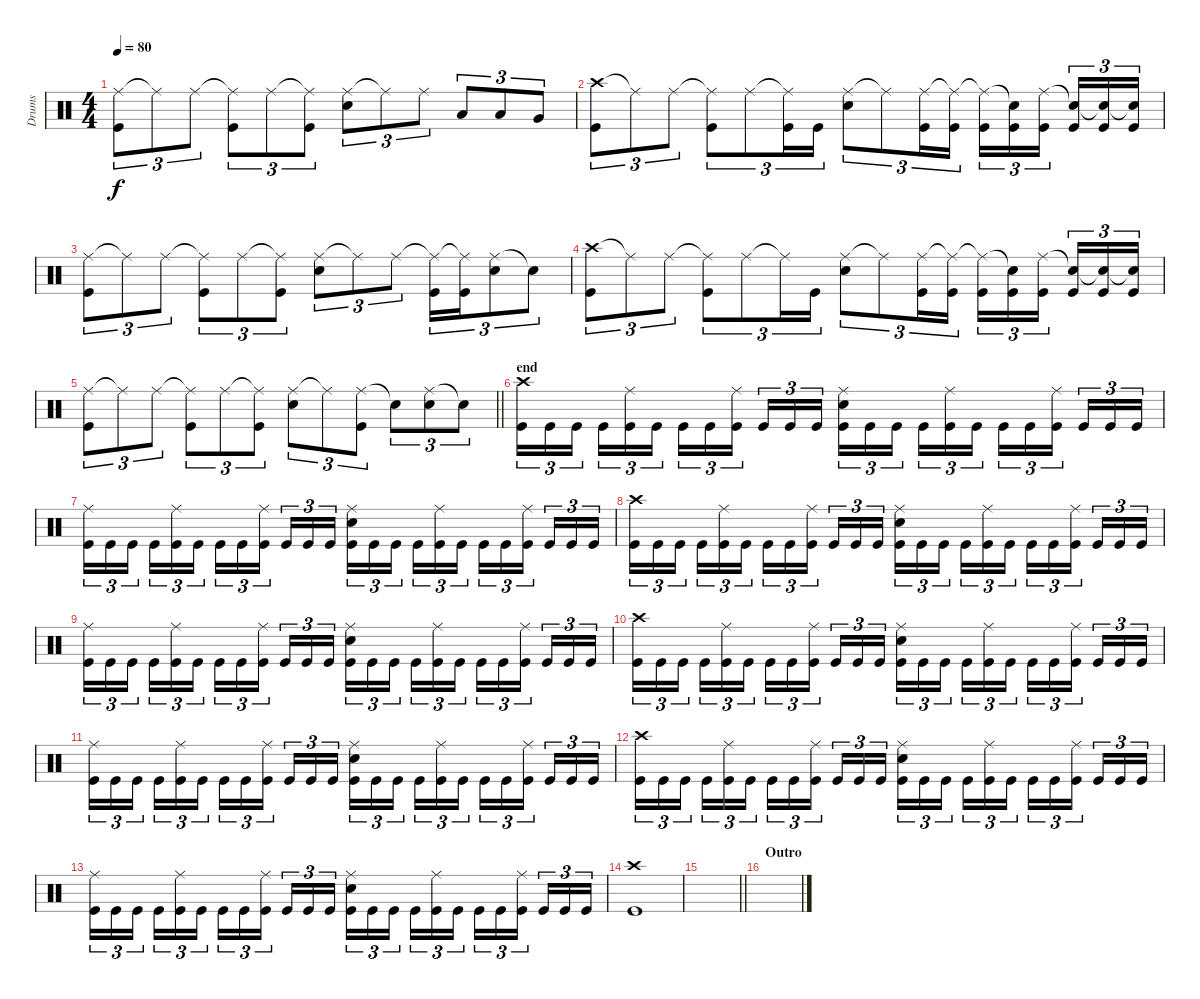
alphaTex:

\track ("Drums" "Drums") {instrument percussion}
\staff {score}
\articulation defaults
\ts (4 4)
\tempo 80
\clef neutral
\ks c
("Ride (middle)" "Kick (hit)").8{tu (3 2) dy f} "Ride (middle)"{t}.8{tu (3 2)} "Ride (middle)".8{tu (3 2)} ("Ride (middle)"{t} "Kick (hit)").8{tu (3 2)} "Ride (middle)".8{tu (3 2)} ("Ride (middle)"{t} "Kick (hit)").8{tu (3 2)} ("Ride (middle)" "Snare (hit) 2").8{tu (3 2)} "Ride (middle)"{t}.8{tu (3 2)} "Ride (middle)".8{tu (3 2)} "Low Tom (hit)".8{tu (3 2)} "Low Tom (hit)".8{tu (3 2)} "Very Low Tom (hit)".8{tu (3 2)} |
("Crash high (hit)" "Kick (hit)").8{tu (3 2)} "Ride (middle)"{t}.8{tu (3 2)} "Ride (middle)".8{tu (3 2)} ("Ride (middle)"{t} "Kick (hit)").8{tu (3 2)} "Ride (middle)".8{tu (3 2)} ("Ride (middle)"{t} "Kick (hit)").16{tu (3 2)} "Kick (hit)".16{tu (3 2)} ("Ride (middle)" "Snare (hit) 2").8{tu (3 2)} "Ride (middle)"{t}.8{tu (3 2)} ("Ride (middle)" "Kick (hit)").16{tu (3 2)} ("Ride (middle)"{t} "Kick (hit)").16{tu (3 2)} ("Ride (middle)"{t} "Kick (hit)").16{tu (3 2)} ("Snare (hit)"{t} "Kick (hit)").16{tu (3 2)} ("Ride (middle)" "Kick (hit)").16{tu (3 2) beam splitsecondary} ("Snare (hit)"{t} "Kick (hit)").16{tu (3 2)} ("Snare (hit)"{t} "Kick (hit)").16{tu (3 2)} ("Snare (hit)"{t} "Kick (hit)").16{tu (3 2)} |
("Ride (middle)" "Kick (hit)").8{tu (3 2)} "Ride (middle)"{t}.8{tu (3 2)} "Ride (middle)".8{tu (3 2)} ("Ride (middle)"{t} "Kick (hit)").8{tu (3 2)} "Ride (middle)".8{tu (3 2)} ("Ride (middle)"{t} "Kick (hit)").8{tu (3 2)} ("Ride (middle)" "Snare (hit) 2").8{tu (3 2)} "Ride (middle)"{t}.8{tu (3 2)} "Ride (middle)".8{tu (3 2)} ("Ride (middle)"{t} "Kick (hit)").16{tu (3 2)} ("Ride (middle)"{t} "Kick (hit)").16{tu (3 2)} ("Ride (middle)" "Snare (hit) 2").8{tu (3 2)} "Snare (hit)"{t}.8{tu (3 2)} |
("Crash high (hit)" "Kick (hit)").8{tu (3 2)} "Ride (middle)"{t}.8{tu (3 2)} "Ride (middle)".8{tu (3 2)} ("Ride (middle)"{t} "Kick (hit)").8{tu (3 2)} "Ride (middle)".8{tu (3 2)} "Ride (middle)"{t}.16{tu (3 2)} "Kick (hit)".16{tu (3 2)} ("Ride (middle)" "Snare (hit) 2").8{tu (3 2)} "Ride (middle)"{t}.8{tu (3 2)} ("Ride (middle)" "Kick (hit)").16{tu (3 2)} ("Ride (middle)"{t} "Kick (hit)").16{tu (3 2)} ("Ride (middle)"{t} "Kick (hit)").16{tu (3 2)} ("Snare (hit)"{t} "Kick (hit)").16{tu (3 2)} ("Ride (middle)" "Kick (hit)").16{tu (3 2) beam splitsecondary} ("Snare (hit)"{t} "Kick (hit)").16{tu (3 2)} ("Snare (hit)"{t} "Kick (hit)").16{tu (3 2)} ("Snare (hit)"{t} "Kick (hit)").16{tu (3 2)} |
\barLineRight lightlight
("Ride (middle)" "Kick (hit)").8{tu (3 2)} "Ride (middle)"{t}.8{tu (3 2)} "Ride (middle)".8{tu (3 2)} ("Ride (middle)"{t} "Kick (hit)").8{tu (3 2)} "Ride (middle)".8{tu (3 2)} ("Ride (middle)"{t} "Kick (hit)").8{tu (3 2)} ("Ride (middle)" "Snare (hit) 2").8{tu (3 2)} "Ride (middle)"{t}.8{tu (3 2)} ("Ride (middle)" "Kick (hit)").8{tu (3 2)} "Snare (hit)"{t}.8{tu (3 2)} ("Ride (middle)" "Snare (hit) 2").8{tu (3 2)} "Snare (hit)"{t}.8{tu (3 2)} |
\section ("" "end")
("Crash high (hit)" "Kick (hit)").16{tu (3 2)} "Kick (hit)".16{tu (3 2)} "Kick (hit)".16{tu (3 2) beam splitsecondary} "Kick (hit)".16{tu (3 2)} ("Ride (middle)" "Kick (hit)").16{tu (3 2)} "Kick (hit)".16{tu (3 2)} "Kick (hit)".16{tu (3 2)} "Kick (hit)".16{tu (3 2)} ("Ride (middle)" "Kick (hit)").16{tu (3 2) beam splitsecondary} "Kick (hit)".16{tu (3 2)} "Kick (hit)".16{tu (3 2)} "Kick (hit)".16{tu (3 2)} ("Ride (middle)" "Snare (hit) 2" "Kick (hit)").16{tu (3 2)} "Kick (hit)".16{tu (3 2)} "Kick (hit)".16{tu (3 2) beam splitsecondary} "Kick (hit)".16{tu (3 2)} ("Ride (middle)" "Kick (hit)").16{tu (3 2)} "Kick (hit)".16{tu (3 2)} "Kick (hit)".16{tu (3 2)} "Kick (hit)".16{tu (3 2)} ("Ride (middle)" "Kick (hit)").16{tu (3 2) beam splitsecondary} "Kick (hit)".16{tu (3 2)} "Kick (hit)".16{tu (3 2)} "Kick (hit)".16{tu (3 2)} |
("Ride (middle)" "Kick (hit)").16{tu (3 2)} "Kick (hit)".16{tu (3 2)} "Kick (hit)".16{tu (3 2) beam splitsecondary} "Kick (hit)".16{tu (3 2)} ("Ride (middle)" "Kick (hit)").16{tu (3 2)} "Kick (hit)".16{tu (3 2)} "Kick (hit)".16{tu (3 2)} "Kick (hit)".16{tu (3 2)} ("Ride (middle)" "Kick (hit)").16{tu (3 2) beam splitsecondary} "Kick (hit)".16{tu (3 2)} "Kick (hit)".16{tu (3 2)} "Kick (hit)".16{tu (3 2)} ("Ride (middle)" "Snare (hit) 2" "Kick (hit)").16{tu (3 2)} "Kick (hit)".16{tu (3 2)} "Kick (hit)".16{tu (3 2) beam splitsecondary} "Kick (hit)".16{tu (3 2)} ("Ride (middle)" "Kick (hit)").16{tu (3 2)} "Kick (hit)".16{tu (3 2)} "Kick (hit)".16{tu (3 2)} "Kick (hit)".16{tu (3 2)} ("Ride (middle)" "Kick (hit)").16{tu (3 2) beam splitsecondary} "Kick (hit)".16{tu (3 2)} "Kick (hit)".16{tu (3 2)} "Kick (hit)".16{tu (3 2)} |
("Crash high (hit)" "Kick (hit)").16{tu (3 2)} "Kick (hit)".16{tu (3 2)} "Kick (hit)".16{tu (3 2) beam splitsecondary} "Kick (hit)".16{tu (3 2)} ("Ride (middle)" "Kick (hit)").16{tu (3 2)} "Kick (hit)".16{tu (3 2)} "Kick (hit)".16{tu (3 2)} "Kick (hit)".16{tu (3 2)} ("Ride (middle)" "Kick (hit)").16{tu (3 2) beam splitsecondary} "Kick (hit)".16{tu (3 2)} "Kick (hit)".16{tu (3 2)} "Kick (hit)".16{tu (3 2)} ("Ride (middle)" "Snare (hit) 2" "Kick (hit)").16{tu (3 2)} "Kick (hit)".16{tu (3 2)} "Kick (hit)".16{tu (3 2) beam splitsecondary} "Kick (hit)".16{tu (3 2)} ("Ride (middle)" "Kick (hit)").16{tu (3 2)} "Kick (hit)".16{tu (3 2)} "Kick (hit)".16{tu (3 2)} "Kick (hit)".16{tu (3 2)} ("Ride (middle)" "Kick (hit)").16{tu (3 2) beam splitsecondary} "Kick (hit)".16{tu (3 2)} "Kick (hit)".16{tu (3 2)} "Kick (hit)".16{tu (3 2)} |
("Ride (middle)" "Kick (hit)").16{tu (3 2)} "Kick (hit)".16{tu (3 2)} "Kick (hit)".16{tu (3 2) beam splitsecondary} "Kick (hit)".16{tu (3 2)} ("Ride (middle)" "Kick (hit)").16{tu (3 2)} "Kick (hit)".16{tu (3 2)} "Kick (hit)".16{tu (3 2)} "Kick (hit)".16{tu (3 2)} ("Ride (middle)" "Kick (hit)").16{tu (3 2) beam splitsecondary} "Kick (hit)".16{tu (3 2)} "Kick (hit)".16{tu (3 2)} "Kick (hit)".16{tu (3 2)} ("Ride (middle)" "Snare (hit) 2" "Kick (hit)").16{tu (3 2)} "Kick (hit)".16{tu (3 2)} "Kick (hit)".16{tu (3 2) beam splitsecondary} "Kick (hit)".16{tu (3 2)} ("Ride (middle)" "Kick (hit)").16{tu (3 2)} "Kick (hit)".16{tu (3 2)} "Kick (hit)".16{tu (3 2)} "Kick (hit)".16{tu (3 2)} ("Ride (middle)" "Kick (hit)").16{tu (3 2) beam splitsecondary} "Kick (hit)".16{tu (3 2)} "Kick (hit)".16{tu (3 2)} "Kick (hit)".16{tu (3 2)} |
("Crash high (hit)" "Kick (hit)").16{tu (3 2)} "Kick (hit)".16{tu (3 2)} "Kick (hit)".16{tu (3 2) beam splitsecondary} "Kick (hit)".16{tu (3 2)} ("Ride (middle)" "Kick (hit)").16{tu (3 2)} "Kick (hit)".16{tu (3 2)} "Kick (hit)".16{tu (3 2)} "Kick (hit)".16{tu (3 2)} ("Ride (middle)" "Kick (hit)").16{tu (3 2) beam splitsecondary} "Kick (hit)".16{tu (3 2)} "Kick (hit)".16{tu (3 2)} "Kick (hit)".16{tu (3 2)} ("Ride (middle)" "Snare (hit) 2" "Kick (hit)").16{tu (3 2)} "Kick (hit)".16{tu (3 2)} "Kick (hit)".16{tu (3 2) beam splitsecondary} "Kick (hit)".16{tu (3 2)} ("Ride (middle)" "Kick (hit)").16{tu (3 2)} "Kick (hit)".16{tu (3 2)} "Kick (hit)".16{tu (3 2)} "Kick (hit)".16{tu (3 2)} ("Ride (middle)" "Kick (hit)").16{tu (3 2) beam splitsecondary} "Kick (hit)".16{tu (3 2)} "Kick (hit)".16{tu (3 2)} "Kick (hit)".16{tu (3 2)} |
("Ride (middle)" "Kick (hit)").16{tu (3 2)} "Kick (hit)".16{tu (3 2)} "Kick (hit)".16{tu (3 2) beam splitsecondary} "Kick (hit)".16{tu (3 2)} ("Ride (middle)" "Kick (hit)").16{tu (3 2)} "Kick (hit)".16{tu (3 2)} "Kick (hit)".16{tu (3 2)} "Kick (hit)".16{tu (3 2)} ("Ride (middle)" "Kick (hit)").16{tu (3 2) beam splitsecondary} "Kick (hit)".16{tu (3 2)} "Kick (hit)".16{tu (3 2)} "Kick (hit)".16{tu (3 2)} ("Ride (middle)" "Snare (hit) 2" "Kick (hit)").16{tu (3 2)} "Kick (hit)".16{tu (3 2)} "Kick (hit)".16{tu (3 2) beam splitsecondary} "Kick (hit)".16{tu (3 2)} ("Ride (middle)" "Kick (hit)").16{tu (3 2)} "Kick (hit)".16{tu (3 2)} "Kick (hit)".16{tu (3 2)} "Kick (hit)".16{tu (3 2)} ("Ride (middle)" "Kick (hit)").16{tu (3 2) beam splitsecondary} "Kick (hit)".16{tu (3 2)} "Kick (hit)".16{tu (3 2)} "Kick (hit)".16{tu (3 2)} |
("Crash high (hit)" "Kick (hit)").16{tu (3 2)} "Kick (hit)".16{tu (3 2)} "Kick (hit)".16{tu (3 2) beam splitsecondary} "Kick (hit)".16{tu (3 2)} ("Ride (middle)" "Kick (hit)").16{tu (3 2)} "Kick (hit)".16{tu (3 2)} "Kick (hit)".16{tu (3 2)} "Kick (hit)".16{tu (3 2)} ("Ride (middle)" "Kick (hit)").16{tu (3 2) beam splitsecondary} "Kick (hit)".16{tu (3 2)} "Kick (hit)".16{tu (3 2)} "Kick (hit)".16{tu (3 2)} ("Ride (middle)" "Snare (hit) 2" "Kick (hit)").16{tu (3 2)} "Kick (hit)".16{tu (3 2)} "Kick (hit)".16{tu (3 2) beam splitsecondary} "Kick (hit)".16{tu (3 2)} ("Ride (middle)" "Kick (hit)").16{tu (3 2)} "Kick (hit)".16{tu (3 2)} "Kick (hit)".16{tu (3 2)} "Kick (hit)".16{tu (3 2)} ("Ride (middle)" "Kick (hit)").16{tu (3 2) beam splitsecondary} "Kick (hit)".16{tu (3 2)} "Kick (hit)".16{tu (3 2)} "Kick (hit)".16{tu (3 2)} |
("Ride (middle)" "Kick (hit)").16{tu (3 2)} "Kick (hit)".16{tu (3 2)} "Kick (hit)".16{tu (3 2) beam splitsecondary} "Kick (hit)".16{tu (3 2)} ("Ride (middle)" "Kick (hit)").16{tu (3 2)} "Kick (hit)".16{tu (3 2)} "Kick (hit)".16{tu (3 2)} "Kick (hit)".16{tu (3 2)} ("Ride (middle)" "Kick (hit)").16{tu (3 2) beam splitsecondary} "Kick (hit)".16{tu (3 2)} "Kick (hit)".16{tu (3 2)} "Kick (hit)".16{tu (3 2)} ("Ride (middle)" "Snare (hit) 2" "Kick (hit)").16{tu (3 2)} "Kick (hit)".16{tu (3 2)} "Kick (hit)".16{tu (3 2) beam splitsecondary} "Kick (hit)".16{tu (3 2)} ("Ride (middle)" "Kick (hit)").16{tu (3 2)} "Kick (hit)".16{tu (3 2)} "Kick (hit)".16{tu (3 2)} "Kick (hit)".16{tu (3 2)} ("Ride (middle)" "Kick (hit)").16{tu (3 2) beam splitsecondary} "Kick (hit)".16{tu (3 2)} "Kick (hit)".16{tu (3 2)} "Kick (hit)".16{tu (3 2)} |
("Crash high (hit)" "Kick (hit)").1 |
\barLineRight lightlight
|
\section ("" "Outro")
